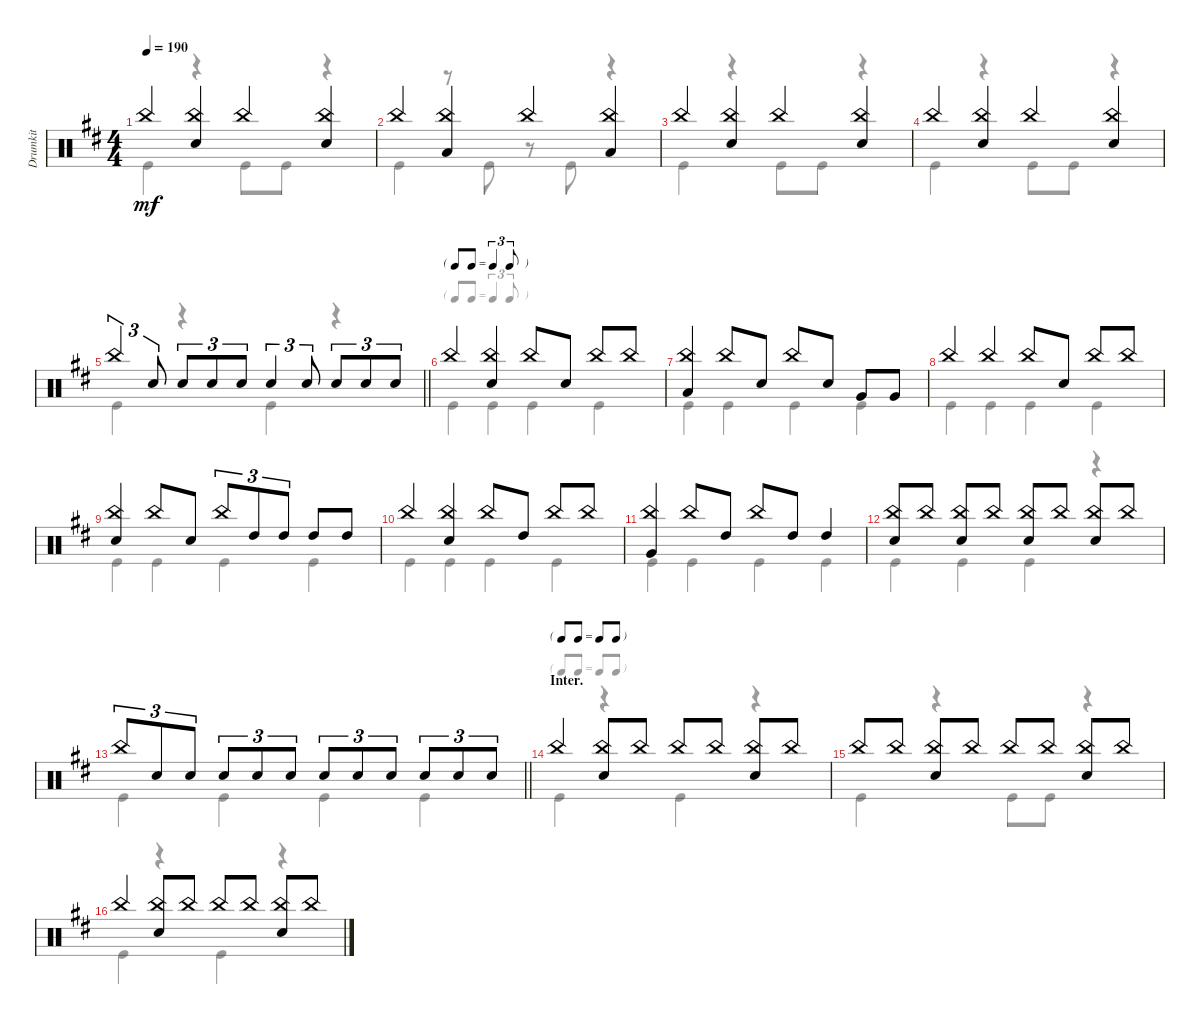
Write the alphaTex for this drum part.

\track ("Drumkit" "Drumkit") {instrument percussion}
\staff {score}
\articulation defaults
\voice
\ts (4 4)
\tempo 190
\clef neutral
\ks d "China (hit)".4{dy mf}
("China (hit)" "Snare (hit) 2").4 "China (hit)".4 ("China (hit)" "Snare (hit) 2").4 |
"China (hit)".4 ("China (hit)" "Low Tom (hit)").4 "China (hit)".4 ("China (hit)" "Low Tom (hit)").4 |
"China (hit)".4 ("China (hit)" "Snare (hit) 2").4 "China (hit)".4 ("China (hit)" "Snare (hit) 2").4 |
"China (hit)".4 ("China (hit)" "Snare (hit) 2").4 "China (hit)".4 ("China (hit)" "Snare (hit) 2").4 |
\barLineRight lightlight "China (hit)".4{tu (3 2)} "Snare (hit) 2".8{tu (3 2)} "Snare (hit) 2".8{tu (3 2)} "Snare (hit) 2".8{tu (3 2)} "Snare (hit) 2".8{tu (3 2)} "Snare (hit) 2".4{tu (3 2)} "Snare (hit) 2".8{tu (3 2)} "Snare (hit) 2".8{tu (3 2)} "Snare (hit) 2".8{tu (3 2)} "Snare (hit) 2".8{tu (3 2)}
|
\tf triplet8th
\section ("" "")
"China (hit)".4 ("China (hit)" "Snare (hit) 2").4 "China (hit)".8 "Snare (hit) 2".8 "China (hit)".8 "China (hit)".8 |
("Low Tom (hit)" "China (hit)").4 "China (hit)".8 "Snare (hit) 2".8 "China (hit)".8 "Snare (hit) 2".8 "Very Low Tom (hit)".8 "Very Low Tom (hit)".8 |
"China (hit)".4 "China (hit)".4 "China (hit)".8 "Snare (hit) 2".8 "China (hit)".8 "China (hit)".8 |
("Snare (hit) 2" "China (hit)").4 "China (hit)".8 "Snare (hit) 2".8 "China (hit)".8{tu (3 2)} "High Tom (hit)".8{tu (3 2)} "High Tom (hit)".8{tu (3 2)} "High Tom (hit)".8 "High Tom (hit)".8 |
"China (hit)".4 ("China (hit)" "Snare (hit) 2").4 "China (hit)".8 "High Tom (hit)".8 "China (hit)".8 "China (hit)".8 |
("Very Low Tom (hit)" "China (hit)").4 "China (hit)".8 "High Tom (hit)".8 "China (hit)".8 "High Tom (hit)".8 "High Tom (hit)".4 |
("Snare (hit) 2" "China (hit)").8 "China (hit)".8 ("China (hit)" "Snare (hit) 2").8 "China (hit)".8 ("China (hit)" "Snare (hit) 2").8 "China (hit)".8 ("China (hit)" "Snare (hit) 2").8 "China (hit)".8 |
\barLineRight lightlight "China (hit)".8{tu (3 2)} "Snare (hit) 2".8{tu (3 2)} "Snare (hit) 2".8{tu (3 2)} "Snare (hit) 2".8{tu (3 2)} "Snare (hit) 2".8{tu (3 2)} "Snare (hit) 2".8{tu (3 2)} "Snare (hit) 2".8{tu (3 2)} "Snare (hit) 2".8{tu (3 2)} "Snare (hit) 2".8{tu (3 2)} "Snare (hit) 2".8{tu (3 2)} "Snare (hit) 2".8{tu (3 2)} "Snare (hit) 2".8{tu (3 2)}
|
\tf none
\section ("" "Inter.")
"China (hit)".4 ("China (hit)" "Snare (hit) 2").8 "China (hit)".8 "China (hit)".8 "China (hit)".8 ("China (hit)" "Snare (hit) 2").8 "China (hit)".8 |
"China (hit)".8 "China (hit)".8 ("China (hit)" "Snare (hit) 2").8 "China (hit)".8 "China (hit)".8 "China (hit)".8 ("China (hit)" "Snare (hit) 2").8 "China (hit)".8 |
"China (hit)".4 ("China (hit)" "Snare (hit) 2").8 "China (hit)".8 "China (hit)".8 "China (hit)".8 ("China (hit)" "Snare (hit) 2").8 "China (hit)".8
\voice
\clef neutral
\ottava regular
\simile none
\ks d "Kick (hit)".4{dy mf}
r.4 "Kick (hit)".8 "Kick (hit)".8 r.4 |
"Kick (hit)".4 r.8 "Kick (hit)".8 r.8 "Kick (hit)".8 r.4 |
"Kick (hit)".4 r.4 "Kick (hit)".8 "Kick (hit)".8 r.4 |
"Kick (hit)".4 r.4 "Kick (hit)".8 "Kick (hit)".8 r.4 |
\barLineRight lightlight "Kick (hit)".4
r.4 "Kick (hit)".4 r.4 |
"Kick (hit)".4 "Kick (hit)".4 "Kick (hit)".4 "Kick (hit)".4 |
"Kick (hit)".4 "Kick (hit)".4 "Kick (hit)".4 "Kick (hit)".4 |
"Kick (hit)".4 "Kick (hit)".4 "Kick (hit)".4 "Kick (hit)".4 |
"Kick (hit)".4 "Kick (hit)".4 "Kick (hit)".4 "Kick (hit)".4 |
"Kick (hit)".4 "Kick (hit)".4 "Kick (hit)".4 "Kick (hit)".4 |
"Kick (hit)".4 "Kick (hit)".4 "Kick (hit)".4 "Kick (hit)".4 |
"Kick (hit)".4 "Kick (hit)".4 "Kick (hit)".4 r.4 |
\barLineRight lightlight "Kick (hit)".4 "Kick (hit)".4 "Kick (hit)".4 "Kick (hit)".4
|
"Kick (hit)".4 r.4 "Kick (hit)".4 r.4 |
"Kick (hit)".4 r.4 "Kick (hit)".8 "Kick (hit)".8 r.4 |
"Kick (hit)".4 r.4 "Kick (hit)".4 r.4
